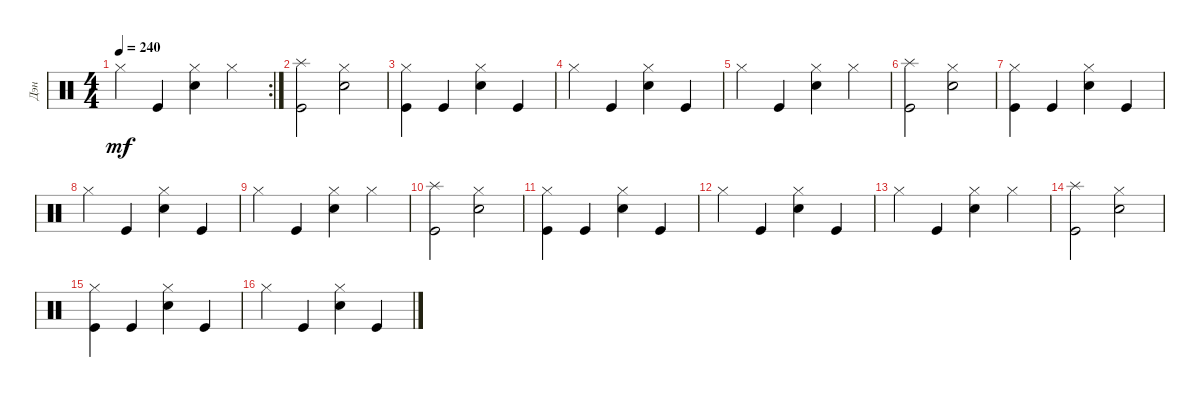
\track ("Дэн" "Дэн") {instrument percussion}
\staff {score}
\articulation defaults
\rc 2
\ts (4 4)
\tempo 240
\clef neutral
\ks c "Hi-Hat (closed)".4{dy mf} "Kick (hit)".4
("Snare (hit) 2" "Hi-Hat (closed)").4 "Hi-Hat (closed)".4 |
("Kick (hit)" "Splash (hit)").2 ("Snare (hit) 2" "Hi-Hat (closed)").2 |
("Kick (hit)" "Hi-Hat (closed)").4 "Kick (hit)".4 ("Snare (hit) 2" "Hi-Hat (closed)").4 "Kick (hit)".4 |
"Hi-Hat (closed)".4 "Kick (hit)".4 ("Snare (hit) 2" "Hi-Hat (closed)").4 "Kick (hit)".4 |
"Hi-Hat (closed)".4 "Kick (hit)".4 ("Snare (hit) 2" "Hi-Hat (closed)").4 "Hi-Hat (closed)".4 |
("Kick (hit)" "Splash (hit)").2 ("Snare (hit) 2" "Hi-Hat (closed)").2 |
("Kick (hit)" "Hi-Hat (closed)").4 "Kick (hit)".4 ("Snare (hit) 2" "Hi-Hat (closed)").4 "Kick (hit)".4 |
"Hi-Hat (closed)".4 "Kick (hit)".4 ("Snare (hit) 2" "Hi-Hat (closed)").4 "Kick (hit)".4 |
"Hi-Hat (closed)".4 "Kick (hit)".4 ("Snare (hit) 2" "Hi-Hat (closed)").4 "Hi-Hat (closed)".4 |
("Kick (hit)" "Splash (hit)").2 ("Snare (hit) 2" "Hi-Hat (closed)").2 |
("Kick (hit)" "Hi-Hat (closed)").4 "Kick (hit)".4 ("Snare (hit) 2" "Hi-Hat (closed)").4 "Kick (hit)".4 |
"Hi-Hat (closed)".4 "Kick (hit)".4 ("Snare (hit) 2" "Hi-Hat (closed)").4 "Kick (hit)".4 |
"Hi-Hat (closed)".4 "Kick (hit)".4 ("Snare (hit) 2" "Hi-Hat (closed)").4 "Hi-Hat (closed)".4 |
("Kick (hit)" "Splash (hit)").2 ("Snare (hit) 2" "Hi-Hat (closed)").2 |
("Kick (hit)" "Hi-Hat (closed)").4 "Kick (hit)".4 ("Snare (hit) 2" "Hi-Hat (closed)").4 "Kick (hit)".4 |
"Hi-Hat (closed)".4 "Kick (hit)".4 ("Snare (hit) 2" "Hi-Hat (closed)").4 "Kick (hit)".4
